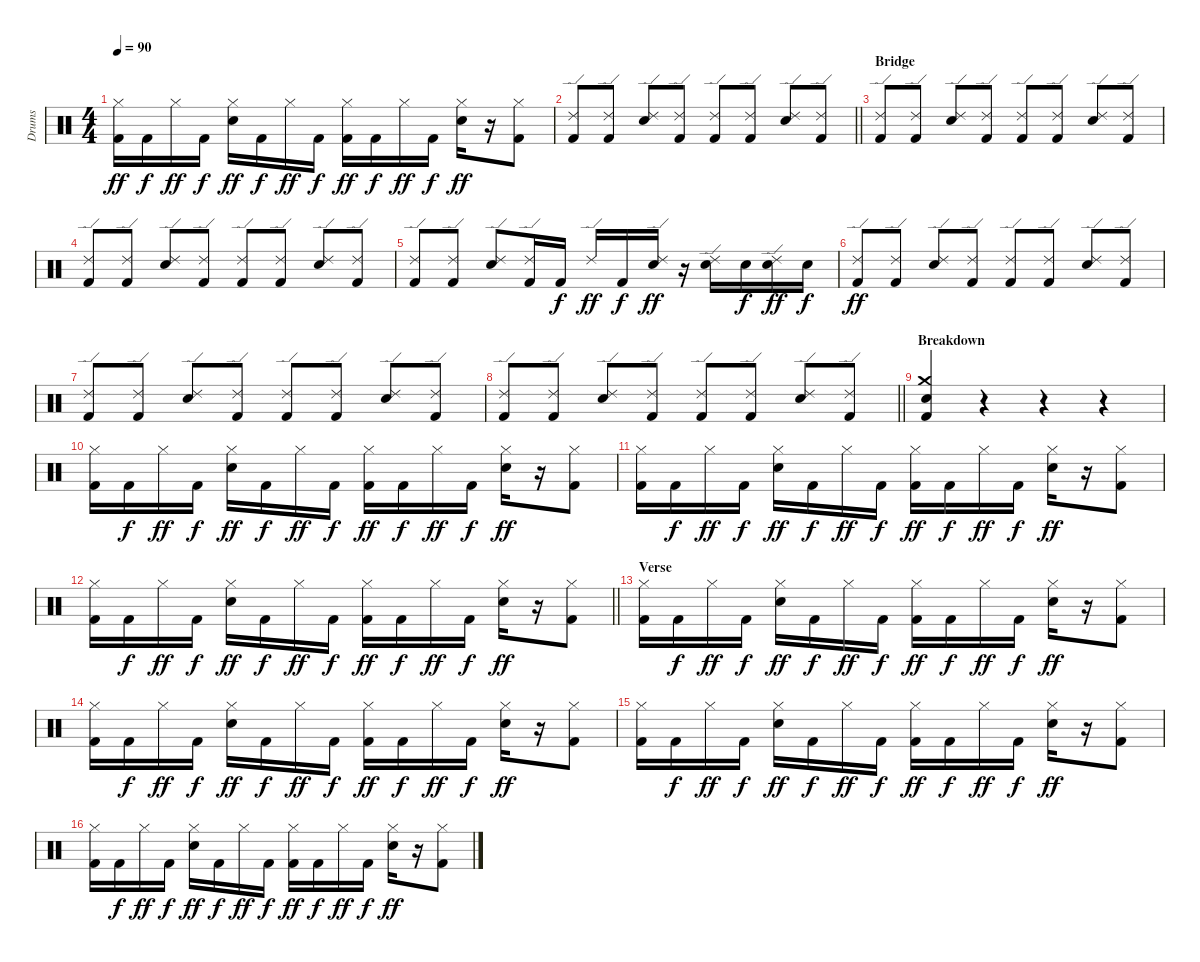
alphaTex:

\track ("Drums" "Drums") {instrument percussion}
\staff {score}
\articulation defaults
\ts (4 4)
\tempo 90
\clef neutral
\ks c
("Hi-Hat (closed)" "Kick (hit) 2").16{dy ff} "Kick (hit) 2".16{dy f} "Hi-Hat (closed)".16{dy ff} "Kick (hit) 2".16{dy f} ("Hi-Hat (closed)" "Electric Snare (hit)").16{dy ff} "Kick (hit) 2".16{dy f} "Hi-Hat (closed)".16{dy ff} "Kick (hit) 2".16{dy f} ("Hi-Hat (closed)" "Kick (hit) 2").16{dy ff} "Kick (hit) 2".16{dy f} "Hi-Hat (closed)".16{dy ff} "Kick (hit) 2".16{dy f} ("Hi-Hat (closed)" "Electric Snare (hit)").16{dy ff} r.16 ("Hi-Hat (closed)" "Kick (hit) 2").8 |
\barLineRight lightlight
("Ride (edge) 2" "Kick (hit) 2").8 ("Ride (edge) 2" "Kick (hit) 2").8 ("Ride (edge) 2" "Electric Snare (hit)").8 ("Ride (edge) 2" "Kick (hit) 2").8 ("Ride (edge) 2" "Kick (hit) 2").8 ("Ride (edge) 2" "Kick (hit) 2").8 ("Ride (edge) 2" "Electric Snare (hit)").8 ("Ride (edge) 2" "Kick (hit) 2").8 |
\section ("" "Bridge")
("Ride (edge) 2" "Kick (hit) 2").8 ("Ride (edge) 2" "Kick (hit) 2").8 ("Ride (edge) 2" "Electric Snare (hit)").8 ("Ride (edge) 2" "Kick (hit) 2").8 ("Ride (edge) 2" "Kick (hit) 2").8 ("Ride (edge) 2" "Kick (hit) 2").8 ("Ride (edge) 2" "Electric Snare (hit)").8 ("Ride (edge) 2" "Kick (hit) 2").8 |
("Ride (edge) 2" "Kick (hit) 2").8 ("Ride (edge) 2" "Kick (hit) 2").8 ("Ride (edge) 2" "Electric Snare (hit)").8 ("Ride (edge) 2" "Kick (hit) 2").8 ("Ride (edge) 2" "Kick (hit) 2").8 ("Ride (edge) 2" "Kick (hit) 2").8 ("Ride (edge) 2" "Electric Snare (hit)").8 ("Ride (edge) 2" "Kick (hit) 2").8 |
("Ride (edge) 2" "Kick (hit) 2").8 ("Ride (edge) 2" "Kick (hit) 2").8 ("Ride (edge) 2" "Electric Snare (hit)").8 ("Ride (edge) 2" "Kick (hit) 2").16 "Kick (hit) 2".16{dy f} "Ride (edge) 2".16{dy ff} "Kick (hit) 2".16{dy f} ("Ride (edge) 2" "Electric Snare (hit)").16{dy ff} r.16 ("Ride (edge) 2" "Electric Snare (hit)").16 "Electric Snare (hit)".16{dy f} ("Ride (edge) 2" "Electric Snare (hit)").16{dy ff} "Electric Snare (hit)".16{dy f} |
("Ride (edge) 2" "Kick (hit) 2").8{dy ff} ("Ride (edge) 2" "Kick (hit) 2").8 ("Ride (edge) 2" "Electric Snare (hit)").8 ("Ride (edge) 2" "Kick (hit) 2").8 ("Ride (edge) 2" "Kick (hit) 2").8 ("Ride (edge) 2" "Kick (hit) 2").8 ("Ride (edge) 2" "Electric Snare (hit)").8 ("Ride (edge) 2" "Kick (hit) 2").8 |
("Ride (edge) 2" "Kick (hit) 2").8 ("Ride (edge) 2" "Kick (hit) 2").8 ("Ride (edge) 2" "Electric Snare (hit)").8 ("Ride (edge) 2" "Kick (hit) 2").8 ("Ride (edge) 2" "Kick (hit) 2").8 ("Ride (edge) 2" "Kick (hit) 2").8 ("Ride (edge) 2" "Electric Snare (hit)").8 ("Ride (edge) 2" "Kick (hit) 2").8 |
\barLineRight lightlight
("Ride (edge) 2" "Kick (hit) 2").8 ("Ride (edge) 2" "Kick (hit) 2").8 ("Ride (edge) 2" "Electric Snare (hit)").8 ("Ride (edge) 2" "Kick (hit) 2").8 ("Ride (edge) 2" "Kick (hit) 2").8 ("Ride (edge) 2" "Kick (hit) 2").8 ("Ride (edge) 2" "Electric Snare (hit)").8 ("Ride (edge) 2" "Kick (hit) 2").8 |
\section ("" "Breakdown")
("Crash medium (hit)" "Snare (hit) 2" "Kick (hit) 2").4 r.4 r.4 r.4 |
("Hi-Hat (closed)" "Kick (hit) 2").16 "Kick (hit) 2".16{dy f} "Hi-Hat (closed)".16{dy ff} "Kick (hit) 2".16{dy f} ("Hi-Hat (closed)" "Electric Snare (hit)").16{dy ff} "Kick (hit) 2".16{dy f} "Hi-Hat (closed)".16{dy ff} "Kick (hit) 2".16{dy f} ("Hi-Hat (closed)" "Kick (hit) 2").16{dy ff} "Kick (hit) 2".16{dy f} "Hi-Hat (closed)".16{dy ff} "Kick (hit) 2".16{dy f} ("Hi-Hat (closed)" "Electric Snare (hit)").16{dy ff} r.16 ("Hi-Hat (closed)" "Kick (hit) 2").8 |
("Hi-Hat (closed)" "Kick (hit) 2").16 "Kick (hit) 2".16{dy f} "Hi-Hat (closed)".16{dy ff} "Kick (hit) 2".16{dy f} ("Hi-Hat (closed)" "Electric Snare (hit)").16{dy ff} "Kick (hit) 2".16{dy f} "Hi-Hat (closed)".16{dy ff} "Kick (hit) 2".16{dy f} ("Hi-Hat (closed)" "Kick (hit) 2").16{dy ff} "Kick (hit) 2".16{dy f} "Hi-Hat (closed)".16{dy ff} "Kick (hit) 2".16{dy f} ("Hi-Hat (closed)" "Electric Snare (hit)").16{dy ff} r.16 ("Hi-Hat (closed)" "Kick (hit) 2").8 |
\barLineRight lightlight
("Hi-Hat (closed)" "Kick (hit) 2").16 "Kick (hit) 2".16{dy f} "Hi-Hat (closed)".16{dy ff} "Kick (hit) 2".16{dy f} ("Hi-Hat (closed)" "Electric Snare (hit)").16{dy ff} "Kick (hit) 2".16{dy f} "Hi-Hat (closed)".16{dy ff} "Kick (hit) 2".16{dy f} ("Hi-Hat (closed)" "Kick (hit) 2").16{dy ff} "Kick (hit) 2".16{dy f} "Hi-Hat (closed)".16{dy ff} "Kick (hit) 2".16{dy f} ("Hi-Hat (closed)" "Electric Snare (hit)").16{dy ff} r.16 ("Hi-Hat (closed)" "Kick (hit) 2").8 |
\section ("" "Verse")
("Hi-Hat (closed)" "Kick (hit) 2").16 "Kick (hit) 2".16{dy f} "Hi-Hat (closed)".16{dy ff} "Kick (hit) 2".16{dy f} ("Hi-Hat (closed)" "Electric Snare (hit)").16{dy ff} "Kick (hit) 2".16{dy f} "Hi-Hat (closed)".16{dy ff} "Kick (hit) 2".16{dy f} ("Hi-Hat (closed)" "Kick (hit) 2").16{dy ff} "Kick (hit) 2".16{dy f} "Hi-Hat (closed)".16{dy ff} "Kick (hit) 2".16{dy f} ("Hi-Hat (closed)" "Electric Snare (hit)").16{dy ff} r.16 ("Hi-Hat (closed)" "Kick (hit) 2").8 |
("Hi-Hat (closed)" "Kick (hit) 2").16 "Kick (hit) 2".16{dy f} "Hi-Hat (closed)".16{dy ff} "Kick (hit) 2".16{dy f} ("Hi-Hat (closed)" "Electric Snare (hit)").16{dy ff} "Kick (hit) 2".16{dy f} "Hi-Hat (closed)".16{dy ff} "Kick (hit) 2".16{dy f} ("Hi-Hat (closed)" "Kick (hit) 2").16{dy ff} "Kick (hit) 2".16{dy f} "Hi-Hat (closed)".16{dy ff} "Kick (hit) 2".16{dy f} ("Hi-Hat (closed)" "Electric Snare (hit)").16{dy ff} r.16 ("Hi-Hat (closed)" "Kick (hit) 2").8 |
("Hi-Hat (closed)" "Kick (hit) 2").16 "Kick (hit) 2".16{dy f} "Hi-Hat (closed)".16{dy ff} "Kick (hit) 2".16{dy f} ("Hi-Hat (closed)" "Electric Snare (hit)").16{dy ff} "Kick (hit) 2".16{dy f} "Hi-Hat (closed)".16{dy ff} "Kick (hit) 2".16{dy f} ("Hi-Hat (closed)" "Kick (hit) 2").16{dy ff} "Kick (hit) 2".16{dy f} "Hi-Hat (closed)".16{dy ff} "Kick (hit) 2".16{dy f} ("Hi-Hat (closed)" "Electric Snare (hit)").16{dy ff} r.16 ("Hi-Hat (closed)" "Kick (hit) 2").8 |
("Hi-Hat (closed)" "Kick (hit) 2").16 "Kick (hit) 2".16{dy f} "Hi-Hat (closed)".16{dy ff} "Kick (hit) 2".16{dy f} ("Hi-Hat (closed)" "Electric Snare (hit)").16{dy ff} "Kick (hit) 2".16{dy f} "Hi-Hat (closed)".16{dy ff} "Kick (hit) 2".16{dy f} ("Hi-Hat (closed)" "Kick (hit) 2").16{dy ff} "Kick (hit) 2".16{dy f} "Hi-Hat (closed)".16{dy ff} "Kick (hit) 2".16{dy f} ("Hi-Hat (closed)" "Electric Snare (hit)").16{dy ff} r.16 ("Hi-Hat (closed)" "Kick (hit) 2").8
